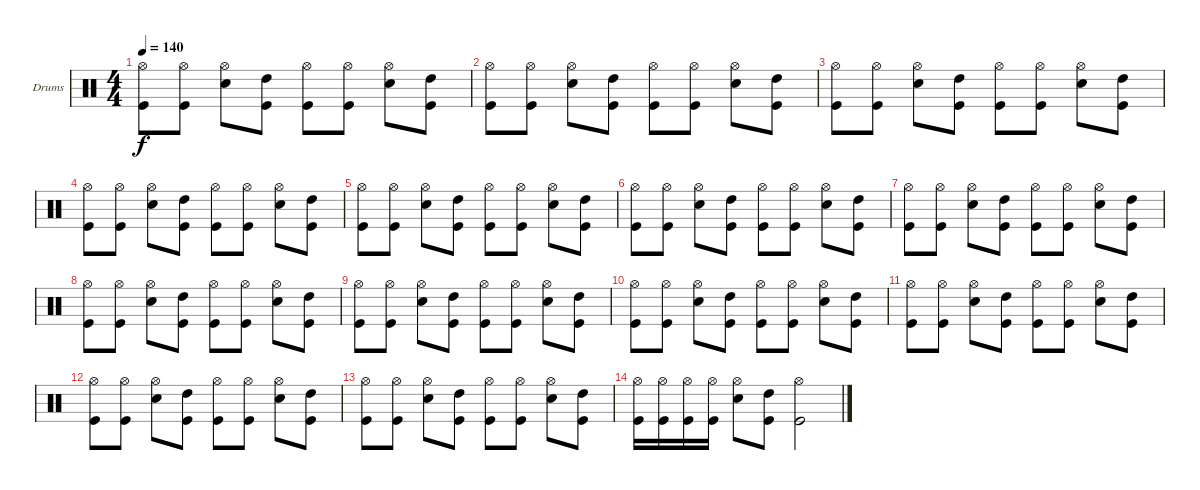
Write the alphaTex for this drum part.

\bracketExtendMode groupsimilarinstruments
\firstSystemTrackNameOrientation horizontal
\otherSystemsTrackNameOrientation horizontal
\track ("Drumkit" "Drums") {instrument percussion}
\staff {score}
\articulation defaults
\ts (4 4)
\tempo 140
\clef neutral
\ks c
("Hi-Hat (open)" "Kick (hit)").8{dy f} ("Hi-Hat (open)" "Kick (hit)").8 ("Hi-Hat (open)" "Snare (hit) 2").8 ("High Tom (hit)" "Kick (hit)").8 ("Hi-Hat (open)" "Kick (hit)").8 ("Hi-Hat (open)" "Kick (hit)").8 ("Hi-Hat (open)" "Snare (hit) 2").8 ("High Tom (hit)" "Kick (hit)").8 |
("Hi-Hat (open)" "Kick (hit)").8 ("Hi-Hat (open)" "Kick (hit)").8 ("Hi-Hat (open)" "Snare (hit) 2").8 ("High Tom (hit)" "Kick (hit)").8 ("Hi-Hat (open)" "Kick (hit)").8 ("Hi-Hat (open)" "Kick (hit)").8 ("Hi-Hat (open)" "Snare (hit) 2").8 ("High Tom (hit)" "Kick (hit)").8 |
("Hi-Hat (open)" "Kick (hit)").8 ("Hi-Hat (open)" "Kick (hit)").8 ("Hi-Hat (open)" "Snare (hit) 2").8 ("High Tom (hit)" "Kick (hit)").8 ("Hi-Hat (open)" "Kick (hit)").8 ("Hi-Hat (open)" "Kick (hit)").8 ("Hi-Hat (open)" "Snare (hit) 2").8 ("High Tom (hit)" "Kick (hit)").8 |
("Hi-Hat (open)" "Kick (hit)").8 ("Hi-Hat (open)" "Kick (hit)").8 ("Hi-Hat (open)" "Snare (hit) 2").8 ("High Tom (hit)" "Kick (hit)").8 ("Hi-Hat (open)" "Kick (hit)").8 ("Hi-Hat (open)" "Kick (hit)").8 ("Hi-Hat (open)" "Snare (hit) 2").8 ("High Tom (hit)" "Kick (hit)").8 |
("Hi-Hat (open)" "Kick (hit)").8 ("Hi-Hat (open)" "Kick (hit)").8 ("Hi-Hat (open)" "Snare (hit) 2").8 ("High Tom (hit)" "Kick (hit)").8 ("Hi-Hat (open)" "Kick (hit)").8 ("Hi-Hat (open)" "Kick (hit)").8 ("Hi-Hat (open)" "Snare (hit) 2").8 ("High Tom (hit)" "Kick (hit)").8 |
("Hi-Hat (open)" "Kick (hit)").8 ("Hi-Hat (open)" "Kick (hit)").8 ("Hi-Hat (open)" "Snare (hit) 2").8 ("High Tom (hit)" "Kick (hit)").8 ("Hi-Hat (open)" "Kick (hit)").8 ("Hi-Hat (open)" "Kick (hit)").8 ("Hi-Hat (open)" "Snare (hit) 2").8 ("High Tom (hit)" "Kick (hit)").8 |
("Hi-Hat (open)" "Kick (hit)").8 ("Hi-Hat (open)" "Kick (hit)").8 ("Hi-Hat (open)" "Snare (hit) 2").8 ("High Tom (hit)" "Kick (hit)").8 ("Hi-Hat (open)" "Kick (hit)").8 ("Hi-Hat (open)" "Kick (hit)").8 ("Hi-Hat (open)" "Snare (hit) 2").8 ("High Tom (hit)" "Kick (hit)").8 |
("Hi-Hat (open)" "Kick (hit)").8 ("Hi-Hat (open)" "Kick (hit)").8 ("Hi-Hat (open)" "Snare (hit) 2").8 ("High Tom (hit)" "Kick (hit)").8 ("Hi-Hat (open)" "Kick (hit)").8 ("Hi-Hat (open)" "Kick (hit)").8 ("Hi-Hat (open)" "Snare (hit) 2").8 ("High Tom (hit)" "Kick (hit)").8 |
("Hi-Hat (open)" "Kick (hit)").8 ("Hi-Hat (open)" "Kick (hit)").8 ("Hi-Hat (open)" "Snare (hit) 2").8 ("High Tom (hit)" "Kick (hit)").8 ("Hi-Hat (open)" "Kick (hit)").8 ("Hi-Hat (open)" "Kick (hit)").8 ("Hi-Hat (open)" "Snare (hit) 2").8 ("High Tom (hit)" "Kick (hit)").8 |
("Hi-Hat (open)" "Kick (hit)").8 ("Hi-Hat (open)" "Kick (hit)").8 ("Hi-Hat (open)" "Snare (hit) 2").8 ("High Tom (hit)" "Kick (hit)").8 ("Hi-Hat (open)" "Kick (hit)").8 ("Hi-Hat (open)" "Kick (hit)").8 ("Hi-Hat (open)" "Snare (hit) 2").8 ("High Tom (hit)" "Kick (hit)").8 |
("Hi-Hat (open)" "Kick (hit)").8 ("Hi-Hat (open)" "Kick (hit)").8 ("Hi-Hat (open)" "Snare (hit) 2").8 ("High Tom (hit)" "Kick (hit)").8 ("Hi-Hat (open)" "Kick (hit)").8 ("Hi-Hat (open)" "Kick (hit)").8 ("Hi-Hat (open)" "Snare (hit) 2").8 ("High Tom (hit)" "Kick (hit)").8 |
("Hi-Hat (open)" "Kick (hit)").8 ("Hi-Hat (open)" "Kick (hit)").8 ("Hi-Hat (open)" "Snare (hit) 2").8 ("High Tom (hit)" "Kick (hit)").8 ("Hi-Hat (open)" "Kick (hit)").8 ("Hi-Hat (open)" "Kick (hit)").8 ("Hi-Hat (open)" "Snare (hit) 2").8 ("High Tom (hit)" "Kick (hit)").8 |
("Hi-Hat (open)" "Kick (hit)").8 ("Hi-Hat (open)" "Kick (hit)").8 ("Hi-Hat (open)" "Snare (hit) 2").8 ("High Tom (hit)" "Kick (hit)").8 ("Hi-Hat (open)" "Kick (hit)").8 ("Hi-Hat (open)" "Kick (hit)").8 ("Hi-Hat (open)" "Snare (hit) 2").8 ("High Tom (hit)" "Kick (hit)").8 |
("Hi-Hat (open)" "Kick (hit)").16 ("Hi-Hat (open)" "Kick (hit)").16 ("Hi-Hat (open)" "Kick (hit)").16 ("Hi-Hat (open)" "Kick (hit)").16 ("Hi-Hat (open)" "Snare (hit) 2").8 ("High Tom (hit)" "Kick (hit)").8 ("Hi-Hat (open)" "Kick (hit)").2
